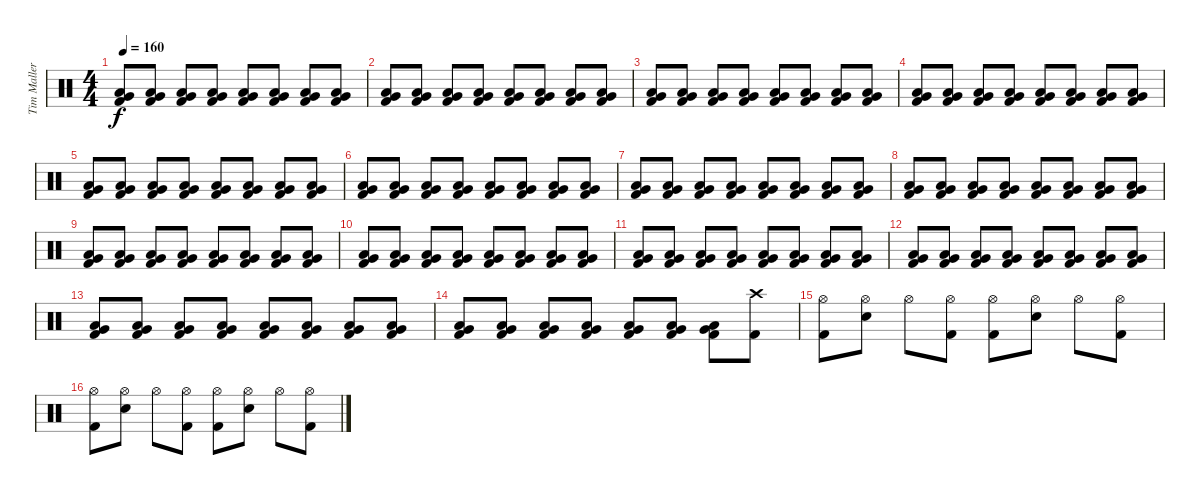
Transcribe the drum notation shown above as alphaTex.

\track ("Tim Mallere" "Tim Maller") {instrument percussion}
\staff {score}
\articulation defaults
\ts (4 4)
\tempo 160
\clef neutral
\ks c
("Low Floor Tom (hit)" "Very Low Tom (hit)" "Kick (hit) 2").8{dy f} ("Low Floor Tom (hit)" "Very Low Tom (hit)" "Kick (hit) 2").8 ("Low Floor Tom (hit)" "Very Low Tom (hit)" "Kick (hit) 2").8 ("Low Floor Tom (hit)" "Very Low Tom (hit)" "Kick (hit) 2").8 ("Low Floor Tom (hit)" "Very Low Tom (hit)" "Kick (hit) 2").8 ("Low Floor Tom (hit)" "Very Low Tom (hit)" "Kick (hit) 2").8 ("Low Floor Tom (hit)" "Very Low Tom (hit)" "Kick (hit) 2").8 ("Low Floor Tom (hit)" "Very Low Tom (hit)" "Kick (hit) 2").8 |
("Low Floor Tom (hit)" "Very Low Tom (hit)" "Kick (hit) 2").8 ("Low Floor Tom (hit)" "Very Low Tom (hit)" "Kick (hit) 2").8 ("Low Floor Tom (hit)" "Very Low Tom (hit)" "Kick (hit) 2").8 ("Low Floor Tom (hit)" "Very Low Tom (hit)" "Kick (hit) 2").8 ("Low Floor Tom (hit)" "Very Low Tom (hit)" "Kick (hit) 2").8 ("Low Floor Tom (hit)" "Very Low Tom (hit)" "Kick (hit) 2").8 ("Low Floor Tom (hit)" "Very Low Tom (hit)" "Kick (hit) 2").8 ("Low Floor Tom (hit)" "Very Low Tom (hit)" "Kick (hit) 2").8 |
("Low Floor Tom (hit)" "Very Low Tom (hit)" "Kick (hit) 2").8 ("Low Floor Tom (hit)" "Very Low Tom (hit)" "Kick (hit) 2").8 ("Low Floor Tom (hit)" "Very Low Tom (hit)" "Kick (hit) 2").8 ("Low Floor Tom (hit)" "Very Low Tom (hit)" "Kick (hit) 2").8 ("Low Floor Tom (hit)" "Very Low Tom (hit)" "Kick (hit) 2").8 ("Low Floor Tom (hit)" "Very Low Tom (hit)" "Kick (hit) 2").8 ("Low Floor Tom (hit)" "Very Low Tom (hit)" "Kick (hit) 2").8 ("Low Floor Tom (hit)" "Very Low Tom (hit)" "Kick (hit) 2").8 |
("Low Floor Tom (hit)" "Very Low Tom (hit)" "Kick (hit) 2").8 ("Low Floor Tom (hit)" "Very Low Tom (hit)" "Kick (hit) 2").8 ("Low Floor Tom (hit)" "Very Low Tom (hit)" "Kick (hit) 2").8 ("Low Floor Tom (hit)" "Very Low Tom (hit)" "Kick (hit) 2").8 ("Low Floor Tom (hit)" "Very Low Tom (hit)" "Kick (hit) 2").8 ("Low Floor Tom (hit)" "Very Low Tom (hit)" "Kick (hit) 2").8 ("Low Floor Tom (hit)" "Very Low Tom (hit)" "Kick (hit) 2").8 ("Low Floor Tom (hit)" "Very Low Tom (hit)" "Kick (hit) 2").8 |
("Low Floor Tom (hit)" "Very Low Tom (hit)" "Kick (hit) 2").8 ("Low Floor Tom (hit)" "Very Low Tom (hit)" "Kick (hit) 2").8 ("Low Floor Tom (hit)" "Very Low Tom (hit)" "Kick (hit) 2").8 ("Low Floor Tom (hit)" "Very Low Tom (hit)" "Kick (hit) 2").8 ("Low Floor Tom (hit)" "Very Low Tom (hit)" "Kick (hit) 2").8 ("Low Floor Tom (hit)" "Very Low Tom (hit)" "Kick (hit) 2").8 ("Low Floor Tom (hit)" "Very Low Tom (hit)" "Kick (hit) 2").8 ("Low Floor Tom (hit)" "Very Low Tom (hit)" "Kick (hit) 2").8 |
("Low Floor Tom (hit)" "Very Low Tom (hit)" "Kick (hit) 2").8 ("Low Floor Tom (hit)" "Very Low Tom (hit)" "Kick (hit) 2").8 ("Low Floor Tom (hit)" "Very Low Tom (hit)" "Kick (hit) 2").8 ("Low Floor Tom (hit)" "Very Low Tom (hit)" "Kick (hit) 2").8 ("Low Floor Tom (hit)" "Very Low Tom (hit)" "Kick (hit) 2").8 ("Low Floor Tom (hit)" "Very Low Tom (hit)" "Kick (hit) 2").8 ("Low Floor Tom (hit)" "Very Low Tom (hit)" "Kick (hit) 2").8 ("Low Floor Tom (hit)" "Very Low Tom (hit)" "Kick (hit) 2").8 |
("Low Floor Tom (hit)" "Very Low Tom (hit)" "Kick (hit) 2").8 ("Low Floor Tom (hit)" "Very Low Tom (hit)" "Kick (hit) 2").8 ("Low Floor Tom (hit)" "Very Low Tom (hit)" "Kick (hit) 2").8 ("Low Floor Tom (hit)" "Very Low Tom (hit)" "Kick (hit) 2").8 ("Low Floor Tom (hit)" "Very Low Tom (hit)" "Kick (hit) 2").8 ("Low Floor Tom (hit)" "Very Low Tom (hit)" "Kick (hit) 2").8 ("Low Floor Tom (hit)" "Very Low Tom (hit)" "Kick (hit) 2").8 ("Low Floor Tom (hit)" "Very Low Tom (hit)" "Kick (hit) 2").8 |
("Low Floor Tom (hit)" "Very Low Tom (hit)" "Kick (hit) 2").8 ("Low Floor Tom (hit)" "Very Low Tom (hit)" "Kick (hit) 2").8 ("Low Floor Tom (hit)" "Very Low Tom (hit)" "Kick (hit) 2").8 ("Low Floor Tom (hit)" "Very Low Tom (hit)" "Kick (hit) 2").8 ("Low Floor Tom (hit)" "Very Low Tom (hit)" "Kick (hit) 2").8 ("Low Floor Tom (hit)" "Very Low Tom (hit)" "Kick (hit) 2").8 ("Low Floor Tom (hit)" "Very Low Tom (hit)" "Kick (hit) 2").8 ("Low Floor Tom (hit)" "Very Low Tom (hit)" "Kick (hit) 2").8 |
("Low Floor Tom (hit)" "Very Low Tom (hit)" "Kick (hit) 2").8 ("Low Floor Tom (hit)" "Very Low Tom (hit)" "Kick (hit) 2").8 ("Low Floor Tom (hit)" "Very Low Tom (hit)" "Kick (hit) 2").8 ("Low Floor Tom (hit)" "Very Low Tom (hit)" "Kick (hit) 2").8 ("Low Floor Tom (hit)" "Very Low Tom (hit)" "Kick (hit) 2").8 ("Low Floor Tom (hit)" "Very Low Tom (hit)" "Kick (hit) 2").8 ("Low Floor Tom (hit)" "Very Low Tom (hit)" "Kick (hit) 2").8 ("Low Floor Tom (hit)" "Very Low Tom (hit)" "Kick (hit) 2").8 |
("Low Floor Tom (hit)" "Very Low Tom (hit)" "Kick (hit) 2").8 ("Low Floor Tom (hit)" "Very Low Tom (hit)" "Kick (hit) 2").8 ("Low Floor Tom (hit)" "Very Low Tom (hit)" "Kick (hit) 2").8 ("Low Floor Tom (hit)" "Very Low Tom (hit)" "Kick (hit) 2").8 ("Low Floor Tom (hit)" "Very Low Tom (hit)" "Kick (hit) 2").8 ("Low Floor Tom (hit)" "Very Low Tom (hit)" "Kick (hit) 2").8 ("Low Floor Tom (hit)" "Very Low Tom (hit)" "Kick (hit) 2").8 ("Low Floor Tom (hit)" "Very Low Tom (hit)" "Kick (hit) 2").8 |
("Low Floor Tom (hit)" "Very Low Tom (hit)" "Kick (hit) 2").8 ("Low Floor Tom (hit)" "Very Low Tom (hit)" "Kick (hit) 2").8 ("Low Floor Tom (hit)" "Very Low Tom (hit)" "Kick (hit) 2").8 ("Low Floor Tom (hit)" "Very Low Tom (hit)" "Kick (hit) 2").8 ("Low Floor Tom (hit)" "Very Low Tom (hit)" "Kick (hit) 2").8 ("Low Floor Tom (hit)" "Very Low Tom (hit)" "Kick (hit) 2").8 ("Low Floor Tom (hit)" "Very Low Tom (hit)" "Kick (hit) 2").8 ("Low Floor Tom (hit)" "Very Low Tom (hit)" "Kick (hit) 2").8 |
("Low Floor Tom (hit)" "Very Low Tom (hit)" "Kick (hit) 2").8 ("Low Floor Tom (hit)" "Very Low Tom (hit)" "Kick (hit) 2").8 ("Low Floor Tom (hit)" "Very Low Tom (hit)" "Kick (hit) 2").8 ("Low Floor Tom (hit)" "Very Low Tom (hit)" "Kick (hit) 2").8 ("Low Floor Tom (hit)" "Very Low Tom (hit)" "Kick (hit) 2").8 ("Low Floor Tom (hit)" "Very Low Tom (hit)" "Kick (hit) 2").8 ("Low Floor Tom (hit)" "Very Low Tom (hit)" "Kick (hit) 2").8 ("Low Floor Tom (hit)" "Very Low Tom (hit)" "Kick (hit) 2").8 |
("Low Floor Tom (hit)" "Very Low Tom (hit)" "Kick (hit) 2").8 ("Low Floor Tom (hit)" "Very Low Tom (hit)" "Kick (hit) 2").8 ("Low Floor Tom (hit)" "Very Low Tom (hit)" "Kick (hit) 2").8 ("Low Floor Tom (hit)" "Very Low Tom (hit)" "Kick (hit) 2").8 ("Low Floor Tom (hit)" "Very Low Tom (hit)" "Kick (hit) 2").8 ("Low Floor Tom (hit)" "Very Low Tom (hit)" "Kick (hit) 2").8 ("Low Floor Tom (hit)" "Very Low Tom (hit)" "Kick (hit) 2").8 ("Low Floor Tom (hit)" "Very Low Tom (hit)" "Kick (hit) 2").8 |
("Low Floor Tom (hit)" "Very Low Tom (hit)" "Kick (hit) 2").8 ("Low Floor Tom (hit)" "Very Low Tom (hit)" "Kick (hit) 2").8 ("Low Floor Tom (hit)" "Very Low Tom (hit)" "Kick (hit) 2").8 ("Low Floor Tom (hit)" "Very Low Tom (hit)" "Kick (hit) 2").8 ("Low Floor Tom (hit)" "Very Low Tom (hit)" "Kick (hit) 2").8 ("Low Floor Tom (hit)" "Very Low Tom (hit)" "Kick (hit) 2").8 ("Low Floor Tom (hit)" "Very Low Tom (hit)" "Kick (hit) 2").8 ("Crash high (hit)" "Kick (hit) 2").8 |
("Hi-Hat (open)" "Kick (hit) 2").8 ("Hi-Hat (open)" "Electric Snare (hit)").8 "Hi-Hat (open)".8 ("Hi-Hat (open)" "Kick (hit) 2").8 ("Hi-Hat (open)" "Kick (hit) 2").8 ("Hi-Hat (open)" "Electric Snare (hit)").8 "Hi-Hat (open)".8 ("Hi-Hat (open)" "Kick (hit) 2").8 |
("Hi-Hat (open)" "Kick (hit) 2").8 ("Hi-Hat (open)" "Electric Snare (hit)").8 "Hi-Hat (open)".8 ("Hi-Hat (open)" "Kick (hit) 2").8 ("Hi-Hat (open)" "Kick (hit) 2").8 ("Hi-Hat (open)" "Electric Snare (hit)").8 "Hi-Hat (open)".8 ("Hi-Hat (open)" "Kick (hit) 2").8
